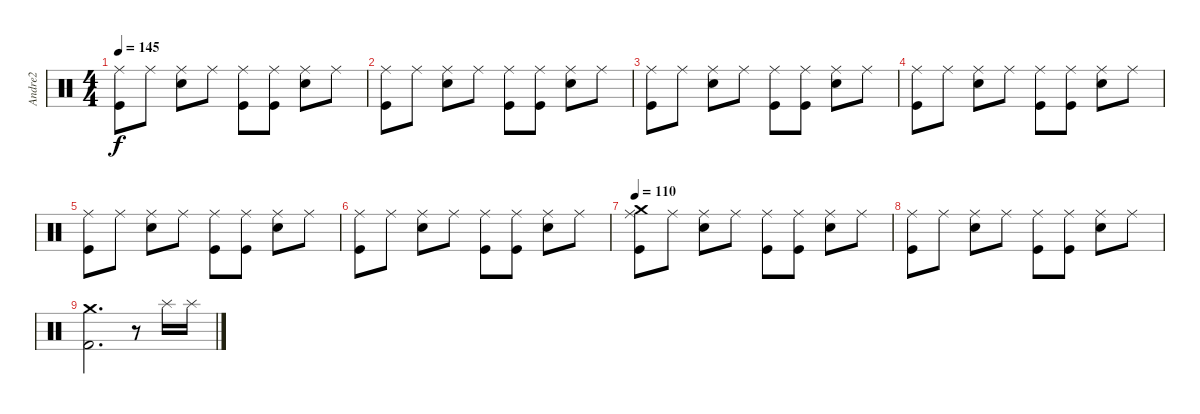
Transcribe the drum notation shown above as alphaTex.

\track ("Andre2" "Andre2") {instrument percussion}
\staff {score}
\articulation defaults
\ts (4 4)
\tempo 145
\clef neutral
\ks c
("Kick (hit)" "Ride (middle)").8{dy f} "Ride (middle)".8 ("Ride (middle)" "Snare (hit) 2").8 "Ride (middle)".8 ("Kick (hit)" "Ride (middle)").8 ("Kick (hit)" "Ride (middle)").8 ("Ride (middle)" "Snare (hit) 2").8 "Ride (middle)".8 |
("Kick (hit)" "Ride (middle)").8 "Ride (middle)".8 ("Ride (middle)" "Snare (hit) 2").8 "Ride (middle)".8 ("Kick (hit)" "Ride (middle)").8 ("Kick (hit)" "Ride (middle)").8 ("Ride (middle)" "Snare (hit) 2").8 "Ride (middle)".8 |
("Kick (hit)" "Ride (middle)").8 "Ride (middle)".8 ("Ride (middle)" "Snare (hit) 2").8 "Ride (middle)".8 ("Kick (hit)" "Ride (middle)").8 ("Kick (hit)" "Ride (middle)").8 ("Ride (middle)" "Snare (hit) 2").8 "Ride (middle)".8 |
("Kick (hit)" "Ride (middle)").8 "Ride (middle)".8 ("Ride (middle)" "Snare (hit) 2").8 "Ride (middle)".8 ("Kick (hit)" "Ride (middle)").8 ("Kick (hit)" "Ride (middle)").8 ("Ride (middle)" "Snare (hit) 2").8 "Ride (middle)".8 |
("Kick (hit)" "Ride (middle)").8 "Ride (middle)".8 ("Ride (middle)" "Snare (hit) 2").8 "Ride (middle)".8 ("Kick (hit)" "Ride (middle)").8 ("Kick (hit)" "Ride (middle)").8 ("Ride (middle)" "Snare (hit) 2").8 "Ride (middle)".8 |
("Kick (hit)" "Ride (middle)").8 "Ride (middle)".8 ("Ride (middle)" "Snare (hit) 2").8 "Ride (middle)".8 ("Kick (hit)" "Ride (middle)").8 ("Kick (hit)" "Ride (middle)").8 ("Ride (middle)" "Snare (hit) 2").8 "Ride (middle)".8 |
\tempo 110
("Kick (hit)" "Ride (middle)" "Crash medium (hit)").8 "Ride (middle)".8 ("Ride (middle)" "Snare (hit) 2").8 "Ride (middle)".8 ("Kick (hit)" "Ride (middle)").8 ("Kick (hit)" "Ride (middle)").8 ("Ride (middle)" "Snare (hit) 2").8 "Ride (middle)".8 |
("Kick (hit)" "Ride (middle)").8 "Ride (middle)".8 ("Ride (middle)" "Snare (hit) 2").8 "Ride (middle)".8 ("Kick (hit)" "Ride (middle)").8 ("Kick (hit)" "Ride (middle)").8 ("Ride (middle)" "Snare (hit) 2").8 "Ride (middle)".8 |
("Crash medium (hit)" "Kick (hit) 2").2{d} r.8 "Splash (hit)".16 "Splash (hit)".16
